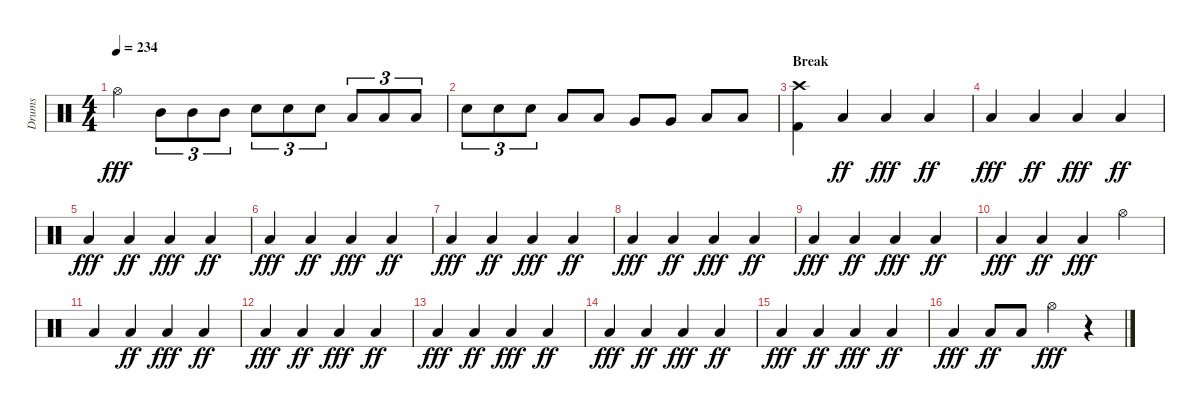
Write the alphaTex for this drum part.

\track ("Drums" "Drums") {instrument percussion}
\staff {score}
\articulation defaults
\ts (4 4)
\tempo 234
\clef neutral
\ks aminor "Hi-Hat (open)".4{dy fff} "Mid Tom (hit)".8{tu (3 2)} "Mid Tom (hit)".8{tu (3 2)} "Mid Tom (hit)".8{tu (3 2)} "Snare (hit) 2".8{tu (3 2)} "Snare (hit) 2".8{tu (3 2)} "Snare (hit) 2".8{tu (3 2)} "Low Tom (hit)".8{tu (3 2)} "Low Tom (hit)".8{tu (3 2)} "Low Tom (hit)".8{tu (3 2)}
|
"Snare (hit) 2".8{tu (3 2)} "Snare (hit) 2".8{tu (3 2)} "Snare (hit) 2".8{tu (3 2)} "Low Tom (hit)".8 "Low Tom (hit)".8 "Very Low Tom (hit)".8 "Very Low Tom (hit)".8 "Low Floor Tom (hit)".8 "Low Floor Tom (hit)".8 |
\section ("" "Break")
("Crash high (hit)" "Kick (hit) 2").4 "Low Floor Tom (hit)".4{dy ff} "Low Floor Tom (hit)".4{dy fff} "Low Floor Tom (hit)".4{dy ff} |
"Low Floor Tom (hit)".4{dy fff} "Low Floor Tom (hit)".4{dy ff} "Low Floor Tom (hit)".4{dy fff} "Low Floor Tom (hit)".4{dy ff} |
"Low Floor Tom (hit)".4{dy fff} "Low Floor Tom (hit)".4{dy ff} "Low Floor Tom (hit)".4{dy fff} "Low Floor Tom (hit)".4{dy ff} |
"Low Floor Tom (hit)".4{dy fff} "Low Floor Tom (hit)".4{dy ff} "Low Floor Tom (hit)".4{dy fff} "Low Floor Tom (hit)".4{dy ff} |
"Low Floor Tom (hit)".4{dy fff} "Low Floor Tom (hit)".4{dy ff} "Low Floor Tom (hit)".4{dy fff} "Low Floor Tom (hit)".4{dy ff} |
"Low Floor Tom (hit)".4{dy fff} "Low Floor Tom (hit)".4{dy ff} "Low Floor Tom (hit)".4{dy fff} "Low Floor Tom (hit)".4{dy ff} |
"Low Floor Tom (hit)".4{dy fff} "Low Floor Tom (hit)".4{dy ff} "Low Floor Tom (hit)".4{dy fff} "Low Floor Tom (hit)".4{dy ff} |
"Low Floor Tom (hit)".4{dy fff} "Low Floor Tom (hit)".4{dy ff} "Low Floor Tom (hit)".4{dy fff} "Hi-Hat (open)".4 |
"Low Floor Tom (hit)".4 "Low Floor Tom (hit)".4{dy ff} "Low Floor Tom (hit)".4{dy fff} "Low Floor Tom (hit)".4{dy ff} |
"Low Floor Tom (hit)".4{dy fff} "Low Floor Tom (hit)".4{dy ff} "Low Floor Tom (hit)".4{dy fff} "Low Floor Tom (hit)".4{dy ff} |
"Low Floor Tom (hit)".4{dy fff} "Low Floor Tom (hit)".4{dy ff} "Low Floor Tom (hit)".4{dy fff} "Low Floor Tom (hit)".4{dy ff} |
"Low Floor Tom (hit)".4{dy fff} "Low Floor Tom (hit)".4{dy ff} "Low Floor Tom (hit)".4{dy fff} "Low Floor Tom (hit)".4{dy ff} |
"Low Floor Tom (hit)".4{dy fff} "Low Floor Tom (hit)".4{dy ff} "Low Floor Tom (hit)".4{dy fff} "Low Floor Tom (hit)".4{dy ff} |
"Low Floor Tom (hit)".4{dy fff} "Low Floor Tom (hit)".8{dy ff} "Low Floor Tom (hit)".8 "Hi-Hat (open)".4{dy fff} r.4
